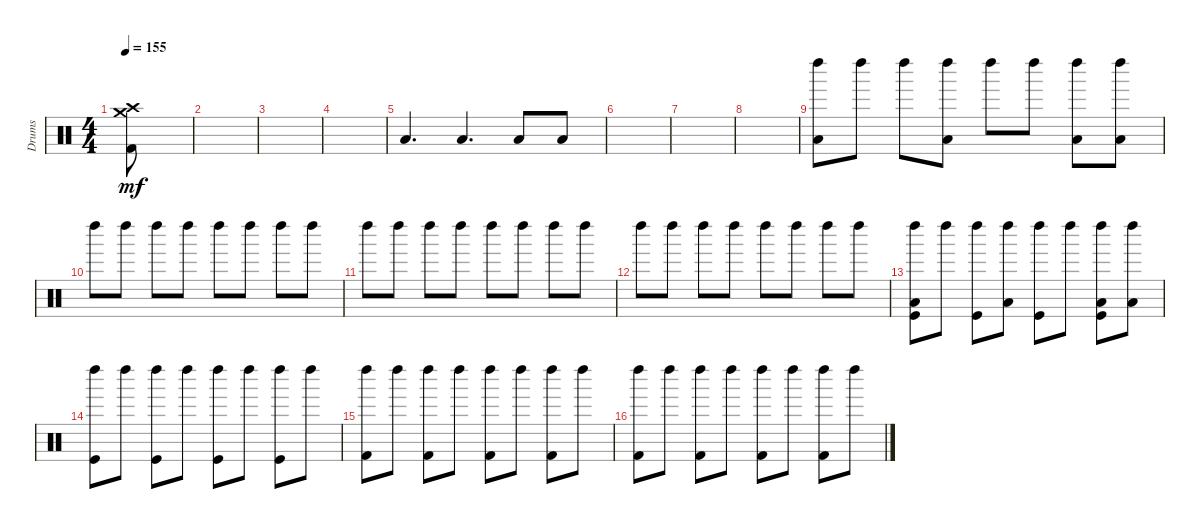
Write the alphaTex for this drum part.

\track ("Drums" "Drums") {instrument percussion}
\staff {score}
\articulation defaults
\ts (4 4)
\tempo 155
\clef neutral
\ks c
("Crash medium (hit)" "Crash high (hit)" "Kick (hit) 2").8{dy mf} |
|
|
|
"Low Floor Tom (hit)".4{d} "Low Floor Tom (hit)".4{d} "Low Floor Tom (hit)".8 "Low Floor Tom (hit)".8 |
|
|
|
("Left Maraca (hit)" "Low Floor Tom (hit)").8 "Left Maraca (hit)".8 "Left Maraca (hit)".8 ("Left Maraca (hit)" "Low Floor Tom (hit)").8 "Left Maraca (hit)".8 "Left Maraca (hit)".8 ("Left Maraca (hit)" "Low Floor Tom (hit)").8 ("Left Maraca (hit)" "Low Floor Tom (hit)").8 |
"Left Maraca (hit)".8 "Left Maraca (hit)".8 "Left Maraca (hit)".8 "Left Maraca (hit)".8 "Left Maraca (hit)".8 "Left Maraca (hit)".8 "Left Maraca (hit)".8 "Left Maraca (hit)".8 |
"Left Maraca (hit)".8 "Left Maraca (hit)".8 "Left Maraca (hit)".8 "Left Maraca (hit)".8 "Left Maraca (hit)".8 "Left Maraca (hit)".8 "Left Maraca (hit)".8 "Left Maraca (hit)".8 |
"Left Maraca (hit)".8 "Left Maraca (hit)".8 "Left Maraca (hit)".8 "Left Maraca (hit)".8 "Left Maraca (hit)".8 "Left Maraca (hit)".8 "Left Maraca (hit)".8 "Left Maraca (hit)".8 |
("Left Maraca (hit)" "Low Floor Tom (hit)" "Kick (hit)").8 "Left Maraca (hit)".8 ("Left Maraca (hit)" "Kick (hit)").8 ("Left Maraca (hit)" "Low Floor Tom (hit)").8 ("Left Maraca (hit)" "Kick (hit)").8 "Left Maraca (hit)".8 ("Left Maraca (hit)" "Low Floor Tom (hit)" "Kick (hit)").8 ("Left Maraca (hit)" "Low Floor Tom (hit)").8 |
("Left Maraca (hit)" "Kick (hit)").8 "Left Maraca (hit)".8 ("Left Maraca (hit)" "Kick (hit)").8 "Left Maraca (hit)".8 ("Left Maraca (hit)" "Kick (hit)").8 "Left Maraca (hit)".8 ("Left Maraca (hit)" "Kick (hit)").8 "Left Maraca (hit)".8 |
("Left Maraca (hit)" "Kick (hit) 2").8 "Left Maraca (hit)".8 ("Left Maraca (hit)" "Kick (hit) 2").8 "Left Maraca (hit)".8 ("Left Maraca (hit)" "Kick (hit) 2").8 "Left Maraca (hit)".8 ("Left Maraca (hit)" "Kick (hit) 2").8 "Left Maraca (hit)".8 |
("Left Maraca (hit)" "Kick (hit) 2").8 "Left Maraca (hit)".8 ("Left Maraca (hit)" "Kick (hit) 2").8 "Left Maraca (hit)".8 ("Left Maraca (hit)" "Kick (hit) 2").8 "Left Maraca (hit)".8 ("Left Maraca (hit)" "Kick (hit) 2").8 "Left Maraca (hit)".8
